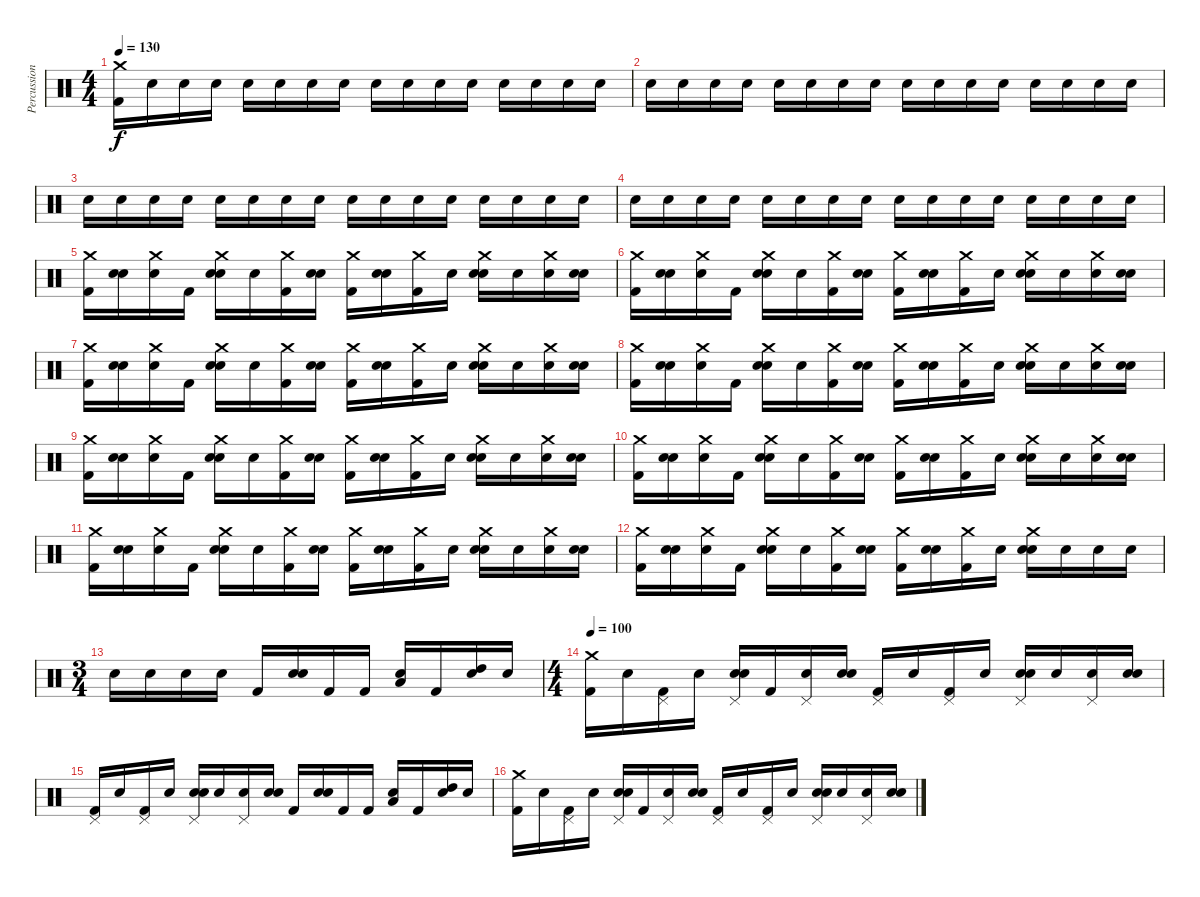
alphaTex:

\track ("Percussion" "Percussion") {instrument percussion}
\staff {score}
\articulation defaults
\ts (4 4)
\tempo 130
\clef neutral
\ks c
("Crash medium (hit)" "Kick (hit) 2").16{dy f} "Snare (hit)".16 "Snare (hit)".16 "Snare (hit)".16 "Snare (hit)".16 "Snare (hit)".16 "Snare (hit)".16 "Snare (hit)".16 "Snare (hit)".16 "Snare (hit)".16 "Snare (hit)".16 "Snare (hit)".16 "Snare (hit)".16 "Snare (hit)".16 "Snare (hit)".16 "Snare (hit)".16 |
"Snare (hit)".16 "Snare (hit)".16 "Snare (hit)".16 "Snare (hit)".16 "Snare (hit)".16 "Snare (hit)".16 "Snare (hit)".16 "Snare (hit)".16 "Snare (hit)".16 "Snare (hit)".16 "Snare (hit)".16 "Snare (hit)".16 "Snare (hit)".16 "Snare (hit)".16 "Snare (hit)".16 "Snare (hit)".16 |
"Snare (hit)".16 "Snare (hit)".16 "Snare (hit)".16 "Snare (hit)".16 "Snare (hit)".16 "Snare (hit)".16 "Snare (hit)".16 "Snare (hit)".16 "Snare (hit)".16 "Snare (hit)".16 "Snare (hit)".16 "Snare (hit)".16 "Snare (hit)".16 "Snare (hit)".16 "Snare (hit)".16 "Snare (hit)".16 |
"Snare (hit)".16 "Snare (hit)".16 "Snare (hit)".16 "Snare (hit)".16 "Snare (hit)".16 "Snare (hit)".16 "Snare (hit)".16 "Snare (hit)".16 "Snare (hit)".16 "Snare (hit)".16 "Snare (hit)".16 "Snare (hit)".16 "Snare (hit)".16 "Snare (hit)".16 "Snare (hit)".16 "Snare (hit)".16 |
("Crash medium (hit)" "Kick (hit) 2").16 ("Electric Snare (hit)" "Snare (hit)").16 ("Crash medium (hit)" "Snare (hit)").16 "Kick (hit) 2".16 ("Electric Snare (hit)" "Crash medium (hit)" "Snare (hit)").16 "Snare (hit)".16 ("Crash medium (hit)" "Kick (hit) 2").16 ("Electric Snare (hit)" "Snare (hit)").16 ("Crash medium (hit)" "Kick (hit) 2").16 ("Electric Snare (hit)" "Snare (hit)").16 ("Crash medium (hit)" "Kick (hit) 2").16 "Snare (hit)".16 ("Electric Snare (hit)" "Crash medium (hit)" "Snare (hit)").16 "Snare (hit)".16 ("Crash medium (hit)" "Snare (hit)").16 ("Electric Snare (hit)" "Snare (hit)").16 |
("Crash medium (hit)" "Kick (hit) 2").16 ("Electric Snare (hit)" "Snare (hit)").16 ("Crash medium (hit)" "Snare (hit)").16 "Kick (hit) 2".16 ("Electric Snare (hit)" "Crash medium (hit)" "Snare (hit)").16 "Snare (hit)".16 ("Crash medium (hit)" "Kick (hit) 2").16 ("Electric Snare (hit)" "Snare (hit)").16 ("Crash medium (hit)" "Kick (hit) 2").16 ("Electric Snare (hit)" "Snare (hit)").16 ("Crash medium (hit)" "Kick (hit) 2").16 "Snare (hit)".16 ("Electric Snare (hit)" "Crash medium (hit)" "Snare (hit)").16 "Snare (hit)".16 ("Crash medium (hit)" "Snare (hit)").16 ("Electric Snare (hit)" "Snare (hit)").16 |
("Crash medium (hit)" "Kick (hit) 2").16 ("Electric Snare (hit)" "Snare (hit)").16 ("Crash medium (hit)" "Snare (hit)").16 "Kick (hit) 2".16 ("Electric Snare (hit)" "Crash medium (hit)" "Snare (hit)").16 "Snare (hit)".16 ("Crash medium (hit)" "Kick (hit) 2").16 ("Electric Snare (hit)" "Snare (hit)").16 ("Crash medium (hit)" "Kick (hit) 2").16 ("Electric Snare (hit)" "Snare (hit)").16 ("Crash medium (hit)" "Kick (hit) 2").16 "Snare (hit)".16 ("Electric Snare (hit)" "Crash medium (hit)" "Snare (hit)").16 "Snare (hit)".16 ("Crash medium (hit)" "Snare (hit)").16 ("Electric Snare (hit)" "Snare (hit)").16 |
("Crash medium (hit)" "Kick (hit) 2").16 ("Electric Snare (hit)" "Snare (hit)").16 ("Crash medium (hit)" "Snare (hit)").16 "Kick (hit) 2".16 ("Electric Snare (hit)" "Crash medium (hit)" "Snare (hit)").16 "Snare (hit)".16 ("Crash medium (hit)" "Kick (hit) 2").16 ("Electric Snare (hit)" "Snare (hit)").16 ("Crash medium (hit)" "Kick (hit) 2").16 ("Electric Snare (hit)" "Snare (hit)").16 ("Crash medium (hit)" "Kick (hit) 2").16 "Snare (hit)".16 ("Electric Snare (hit)" "Crash medium (hit)" "Snare (hit)").16 "Snare (hit)".16 ("Crash medium (hit)" "Snare (hit)").16 ("Electric Snare (hit)" "Snare (hit)").16 |
("Crash medium (hit)" "Kick (hit) 2").16 ("Electric Snare (hit)" "Snare (hit)").16 ("Crash medium (hit)" "Snare (hit)").16 "Kick (hit) 2".16 ("Electric Snare (hit)" "Crash medium (hit)" "Snare (hit)").16 "Snare (hit)".16 ("Crash medium (hit)" "Kick (hit) 2").16 ("Electric Snare (hit)" "Snare (hit)").16 ("Crash medium (hit)" "Kick (hit) 2").16 ("Electric Snare (hit)" "Snare (hit)").16 ("Crash medium (hit)" "Kick (hit) 2").16 "Snare (hit)".16 ("Electric Snare (hit)" "Crash medium (hit)" "Snare (hit)").16 "Snare (hit)".16 ("Crash medium (hit)" "Snare (hit)").16 ("Electric Snare (hit)" "Snare (hit)").16 |
("Crash medium (hit)" "Kick (hit) 2").16 ("Electric Snare (hit)" "Snare (hit)").16 ("Crash medium (hit)" "Snare (hit)").16 "Kick (hit) 2".16 ("Electric Snare (hit)" "Crash medium (hit)" "Snare (hit)").16 "Snare (hit)".16 ("Crash medium (hit)" "Kick (hit) 2").16 ("Electric Snare (hit)" "Snare (hit)").16 ("Crash medium (hit)" "Kick (hit) 2").16 ("Electric Snare (hit)" "Snare (hit)").16 ("Crash medium (hit)" "Kick (hit) 2").16 "Snare (hit)".16 ("Electric Snare (hit)" "Crash medium (hit)" "Snare (hit)").16 "Snare (hit)".16 ("Crash medium (hit)" "Snare (hit)").16 ("Electric Snare (hit)" "Snare (hit)").16 |
("Crash medium (hit)" "Kick (hit) 2").16 ("Electric Snare (hit)" "Snare (hit)").16 ("Crash medium (hit)" "Snare (hit)").16 "Kick (hit) 2".16 ("Electric Snare (hit)" "Crash medium (hit)" "Snare (hit)").16 "Snare (hit)".16 ("Crash medium (hit)" "Kick (hit) 2").16 ("Electric Snare (hit)" "Snare (hit)").16 ("Crash medium (hit)" "Kick (hit) 2").16 ("Electric Snare (hit)" "Snare (hit)").16 ("Crash medium (hit)" "Kick (hit) 2").16 "Snare (hit)".16 ("Electric Snare (hit)" "Crash medium (hit)" "Snare (hit)").16 "Snare (hit)".16 ("Crash medium (hit)" "Snare (hit)").16 ("Electric Snare (hit)" "Snare (hit)").16 |
("Crash medium (hit)" "Kick (hit) 2").16 ("Electric Snare (hit)" "Snare (hit)").16 ("Crash medium (hit)" "Snare (hit)").16 "Kick (hit) 2".16 ("Electric Snare (hit)" "Crash medium (hit)" "Snare (hit)").16 "Snare (hit)".16 ("Crash medium (hit)" "Kick (hit) 2").16 ("Electric Snare (hit)" "Snare (hit)").16 ("Crash medium (hit)" "Kick (hit) 2").16 ("Electric Snare (hit)" "Snare (hit)").16 ("Crash medium (hit)" "Kick (hit) 2").16 "Snare (hit)".16 ("Electric Snare (hit)" "Crash medium (hit)" "Snare (hit)").16 "Snare (hit)".16 "Snare (hit)".16 "Snare (hit)".16 |
\ts (3 4)
"Snare (hit)".16 "Snare (hit)".16 "Snare (hit)".16 "Snare (hit)".16 "Kick (hit) 2".16 ("Electric Snare (hit)" "Snare (hit)").16 "Kick (hit) 2".16 "Kick (hit) 2".16 ("Low Tom (hit)" "Snare (hit)").16 "Kick (hit) 2".16 ("High Tom (hit)" "Snare (hit)").16 "Snare (hit)".16 |
\ts (4 4)
\tempo 100
("Crash medium (hit)" "Kick (hit) 2").16 "Snare (hit)".16 ("Pedal Hi-Hat (hit)" "Kick (hit) 2").16 "Snare (hit)".16 ("Pedal Hi-Hat (hit)" "Electric Snare (hit)" "Snare (hit)").16 "Kick (hit) 2".16 ("Pedal Hi-Hat (hit)" "Snare (hit)").16 ("Electric Snare (hit)" "Snare (hit)").16 ("Pedal Hi-Hat (hit)" "Kick (hit) 2").16 "Snare (hit)".16 ("Pedal Hi-Hat (hit)" "Kick (hit) 2").16 "Snare (hit)".16 ("Pedal Hi-Hat (hit)" "Electric Snare (hit)" "Snare (hit)").16 "Snare (hit)".16 ("Pedal Hi-Hat (hit)" "Snare (hit)").16 ("Electric Snare (hit)" "Snare (hit)").16 |
("Pedal Hi-Hat (hit)" "Kick (hit) 2").16 "Snare (hit)".16 ("Pedal Hi-Hat (hit)" "Kick (hit) 2").16 "Snare (hit)".16 ("Pedal Hi-Hat (hit)" "Electric Snare (hit)" "Snare (hit)").16 "Snare (hit)".16 ("Pedal Hi-Hat (hit)" "Snare (hit)").16 ("Electric Snare (hit)" "Snare (hit)").16 "Kick (hit) 2".16 ("Electric Snare (hit)" "Snare (hit)").16 "Kick (hit) 2".16 "Kick (hit) 2".16 ("Low Tom (hit)" "Snare (hit)").16 "Kick (hit) 2".16 ("High Tom (hit)" "Snare (hit)").16 "Snare (hit)".16 |
("Crash medium (hit)" "Kick (hit) 2").16 "Snare (hit)".16 ("Pedal Hi-Hat (hit)" "Kick (hit) 2").16 "Snare (hit)".16 ("Pedal Hi-Hat (hit)" "Electric Snare (hit)" "Snare (hit)").16 "Kick (hit) 2".16 ("Pedal Hi-Hat (hit)" "Snare (hit)").16 ("Electric Snare (hit)" "Snare (hit)").16 ("Pedal Hi-Hat (hit)" "Kick (hit) 2").16 "Snare (hit)".16 ("Pedal Hi-Hat (hit)" "Kick (hit) 2").16 "Snare (hit)".16 ("Pedal Hi-Hat (hit)" "Electric Snare (hit)" "Snare (hit)").16 "Snare (hit)".16 ("Pedal Hi-Hat (hit)" "Snare (hit)").16 ("Electric Snare (hit)" "Snare (hit)").16
